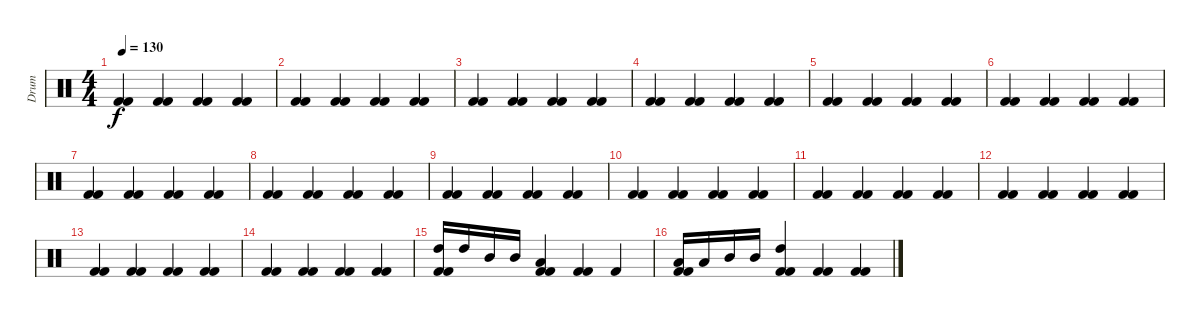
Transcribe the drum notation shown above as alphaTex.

\track ("Drum" "Drum") {instrument percussion}
\staff {score}
\articulation defaults
\ts (4 4)
\tempo 130
\clef neutral
\ks c
("Kick (hit) 2" "Kick (hit) 2").4{dy f} ("Kick (hit) 2" "Kick (hit) 2").4 ("Kick (hit) 2" "Kick (hit) 2").4 ("Kick (hit) 2" "Kick (hit) 2").4 |
("Kick (hit) 2" "Kick (hit) 2").4 ("Kick (hit) 2" "Kick (hit) 2").4 ("Kick (hit) 2" "Kick (hit) 2").4 ("Kick (hit) 2" "Kick (hit) 2").4 |
("Kick (hit) 2" "Kick (hit) 2").4 ("Kick (hit) 2" "Kick (hit) 2").4 ("Kick (hit) 2" "Kick (hit) 2").4 ("Kick (hit) 2" "Kick (hit) 2").4 |
("Kick (hit) 2" "Kick (hit) 2").4 ("Kick (hit) 2" "Kick (hit) 2").4 ("Kick (hit) 2" "Kick (hit) 2").4 ("Kick (hit) 2" "Kick (hit) 2").4 |
("Kick (hit) 2" "Kick (hit) 2").4 ("Kick (hit) 2" "Kick (hit) 2").4 ("Kick (hit) 2" "Kick (hit) 2").4 ("Kick (hit) 2" "Kick (hit) 2").4 |
("Kick (hit) 2" "Kick (hit) 2").4 ("Kick (hit) 2" "Kick (hit) 2").4 ("Kick (hit) 2" "Kick (hit) 2").4 ("Kick (hit) 2" "Kick (hit) 2").4 |
("Kick (hit) 2" "Kick (hit) 2").4 ("Kick (hit) 2" "Kick (hit) 2").4 ("Kick (hit) 2" "Kick (hit) 2").4 ("Kick (hit) 2" "Kick (hit) 2").4 |
("Kick (hit) 2" "Kick (hit) 2").4 ("Kick (hit) 2" "Kick (hit) 2").4 ("Kick (hit) 2" "Kick (hit) 2").4 ("Kick (hit) 2" "Kick (hit) 2").4 |
("Kick (hit) 2" "Kick (hit) 2").4 ("Kick (hit) 2" "Kick (hit) 2").4 ("Kick (hit) 2" "Kick (hit) 2").4 ("Kick (hit) 2" "Kick (hit) 2").4 |
("Kick (hit) 2" "Kick (hit) 2").4 ("Kick (hit) 2" "Kick (hit) 2").4 ("Kick (hit) 2" "Kick (hit) 2").4 ("Kick (hit) 2" "Kick (hit) 2").4 |
("Kick (hit) 2" "Kick (hit) 2").4 ("Kick (hit) 2" "Kick (hit) 2").4 ("Kick (hit) 2" "Kick (hit) 2").4 ("Kick (hit) 2" "Kick (hit) 2").4 |
("Kick (hit) 2" "Kick (hit) 2").4 ("Kick (hit) 2" "Kick (hit) 2").4 ("Kick (hit) 2" "Kick (hit) 2").4 ("Kick (hit) 2" "Kick (hit) 2").4 |
("Kick (hit) 2" "Kick (hit) 2").4 ("Kick (hit) 2" "Kick (hit) 2").4 ("Kick (hit) 2" "Kick (hit) 2").4 ("Kick (hit) 2" "Kick (hit) 2").4 |
("Kick (hit) 2" "Kick (hit) 2").4 ("Kick (hit) 2" "Kick (hit) 2").4 ("Kick (hit) 2" "Kick (hit) 2").4 ("Kick (hit) 2" "Kick (hit) 2").4 |
("Kick (hit) 2" "Kick (hit) 2" "High Tom (hit)").16 "High Tom (hit)".16 "Mid Tom (hit)".16 "Mid Tom (hit)".16 ("Kick (hit) 2" "Kick (hit) 2" "Low Tom (hit)").4 ("Kick (hit) 2" "Kick (hit) 2").4 "Kick (hit) 2".4 |
("Kick (hit) 2" "Kick (hit) 2" "Low Tom (hit)").16 "Low Tom (hit)".16 "Mid Tom (hit)".16 "Mid Tom (hit)".16 ("Kick (hit) 2" "Kick (hit) 2" "High Tom (hit)").4 ("Kick (hit) 2" "Kick (hit) 2").4 ("Kick (hit) 2" "Kick (hit) 2").4
